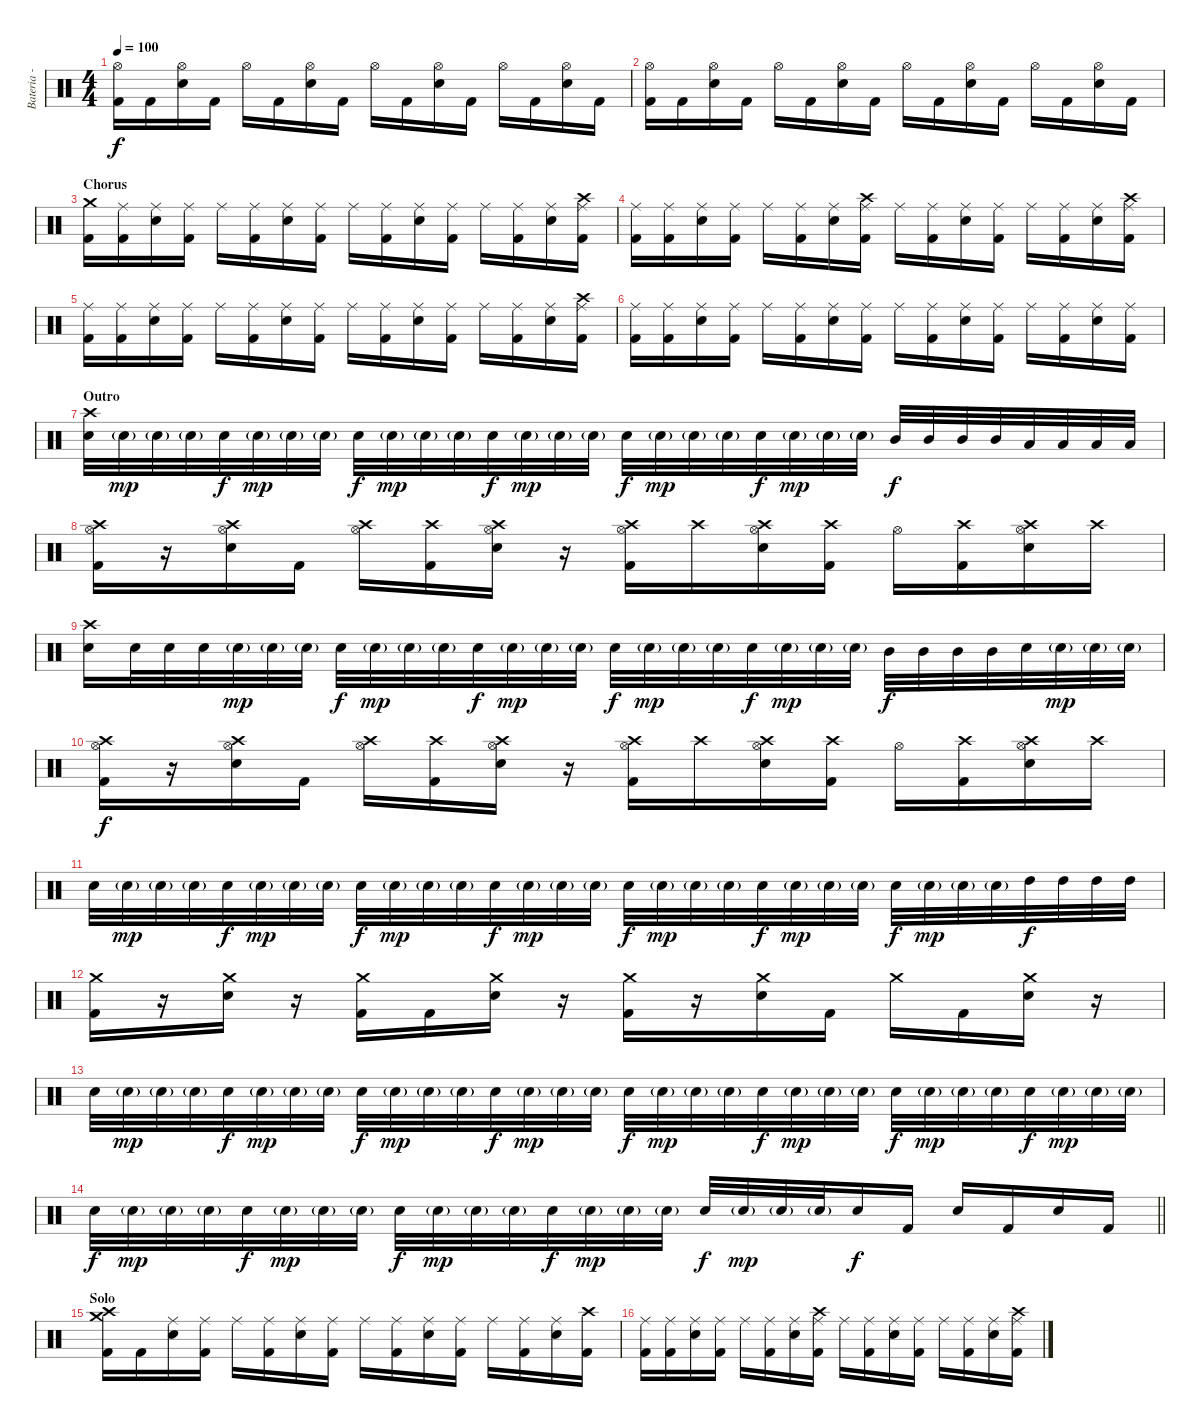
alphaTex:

\track ("Bateria - Frederik Larzon" "Bateria - ") {instrument percussion}
\staff {score}
\articulation defaults
\ts (4 4)
\tempo 100
\clef neutral
\ks c
("Kick (hit) 2" "Hi-Hat (open)").16{dy f} "Kick (hit) 2".16 ("Snare (hit) 2" "Hi-Hat (open)").16 "Kick (hit) 2".16 "Hi-Hat (open)".16 "Kick (hit) 2".16 ("Snare (hit) 2" "Hi-Hat (open)").16 "Kick (hit) 2".16 "Hi-Hat (open)".16 "Kick (hit) 2".16 ("Snare (hit) 2" "Hi-Hat (open)").16 "Kick (hit) 2".16 "Hi-Hat (open)".16 "Kick (hit) 2".16 ("Snare (hit) 2" "Hi-Hat (open)").16 "Kick (hit) 2".16 |
("Kick (hit) 2" "Hi-Hat (open)").16 "Kick (hit) 2".16 ("Snare (hit) 2" "Hi-Hat (open)").16 "Kick (hit) 2".16 "Hi-Hat (open)".16 "Kick (hit) 2".16 ("Snare (hit) 2" "Hi-Hat (open)").16 "Kick (hit) 2".16 "Hi-Hat (open)".16 "Kick (hit) 2".16 ("Snare (hit) 2" "Hi-Hat (open)").16 "Kick (hit) 2".16 "Hi-Hat (open)".16 "Kick (hit) 2".16 ("Snare (hit) 2" "Hi-Hat (open)").16 "Kick (hit) 2".16 |
\section ("" "Chorus")
("Kick (hit) 2" "Crash medium (hit)").16 ("Kick (hit) 2" "Ride (middle)").16 ("Snare (hit) 2" "Ride (middle)").16 ("Kick (hit) 2" "Ride (middle)").16 "Ride (middle)".16 ("Kick (hit) 2" "Ride (middle)").16 ("Snare (hit) 2" "Ride (middle)").16 ("Kick (hit) 2" "Ride (middle)").16 "Ride (middle)".16 ("Kick (hit) 2" "Ride (middle)").16 ("Snare (hit) 2" "Ride (middle)").16 ("Kick (hit) 2" "Ride (middle)").16 "Ride (middle)".16 ("Kick (hit) 2" "Ride (middle)").16 ("Snare (hit) 2" "Ride (middle)").16 ("Kick (hit) 2" "Crash high (hit)" "Ride (middle)").16 |
("Kick (hit) 2" "Ride (middle)").16 ("Kick (hit) 2" "Ride (middle)").16 ("Snare (hit) 2" "Ride (middle)").16 ("Kick (hit) 2" "Ride (middle)").16 "Ride (middle)".16 ("Kick (hit) 2" "Ride (middle)").16 ("Snare (hit) 2" "Ride (middle)").16 ("Kick (hit) 2" "Crash high (hit)" "Ride (middle)").16 "Ride (middle)".16 ("Kick (hit) 2" "Ride (middle)").16 ("Snare (hit) 2" "Ride (middle)").16 ("Kick (hit) 2" "Ride (middle)").16 "Ride (middle)".16 ("Kick (hit) 2" "Ride (middle)").16 ("Snare (hit) 2" "Ride (middle)").16 ("Kick (hit) 2" "Crash high (hit)" "Ride (middle)").16 |
("Kick (hit) 2" "Ride (middle)").16 ("Kick (hit) 2" "Ride (middle)").16 ("Snare (hit) 2" "Ride (middle)").16 ("Kick (hit) 2" "Ride (middle)").16 "Ride (middle)".16 ("Kick (hit) 2" "Ride (middle)").16 ("Snare (hit) 2" "Ride (middle)").16 ("Kick (hit) 2" "Ride (middle)").16 "Ride (middle)".16 ("Kick (hit) 2" "Ride (middle)").16 ("Snare (hit) 2" "Ride (middle)").16 ("Kick (hit) 2" "Ride (middle)").16 "Ride (middle)".16 ("Kick (hit) 2" "Ride (middle)").16 ("Snare (hit) 2" "Ride (middle)").16 ("Kick (hit) 2" "Crash high (hit)" "Ride (middle)").16 |
("Kick (hit) 2" "Ride (middle)").16 ("Kick (hit) 2" "Ride (middle)").16 ("Snare (hit) 2" "Ride (middle)").16 ("Kick (hit) 2" "Ride (middle)").16 "Ride (middle)".16 ("Kick (hit) 2" "Ride (middle)").16 ("Snare (hit) 2" "Ride (middle)").16 ("Kick (hit) 2" "Ride (middle)").16 "Ride (middle)".16 ("Kick (hit) 2" "Ride (middle)").16 ("Snare (hit) 2" "Ride (middle)").16 ("Kick (hit) 2" "Ride (middle)").16 "Ride (middle)".16 ("Kick (hit) 2" "Ride (middle)").16 ("Snare (hit) 2" "Ride (middle)").16 ("Kick (hit) 2" "Ride (middle)").16 |
\section ("" "Outro")
("Snare (hit) 2" "Crash high (hit)").32 "Snare (hit) 2"{g}.32{dy mp} "Snare (hit) 2"{g}.32 "Snare (hit) 2"{g}.32 "Snare (hit) 2".32{dy f} "Snare (hit) 2"{g}.32{dy mp} "Snare (hit) 2"{g}.32 "Snare (hit) 2"{g}.32 "Snare (hit) 2".32{dy f} "Snare (hit) 2"{g}.32{dy mp} "Snare (hit) 2"{g}.32 "Snare (hit) 2"{g}.32 "Snare (hit) 2".32{dy f} "Snare (hit) 2"{g}.32{dy mp} "Snare (hit) 2"{g}.32 "Snare (hit) 2"{g}.32 "Snare (hit) 2".32{dy f} "Snare (hit) 2"{g}.32{dy mp} "Snare (hit) 2"{g}.32 "Snare (hit) 2"{g}.32 "Snare (hit) 2".32{dy f} "Snare (hit) 2"{g}.32{dy mp} "Snare (hit) 2"{g}.32 "Snare (hit) 2"{g}.32 "Mid Tom (hit)".32{dy f} "Mid Tom (hit)".32 "Mid Tom (hit)".32 "Mid Tom (hit)".32 "Low Tom (hit)".32 "Low Tom (hit)".32 "Low Tom (hit)".32 "Low Tom (hit)".32 |
("Kick (hit) 2" "Hi-Hat (open)" "Crash high (hit)").16 r.16 ("Snare (hit) 2" "Hi-Hat (open)" "Crash high (hit)").16 "Kick (hit) 2".16 ("Hi-Hat (open)" "Crash high (hit)").16 ("Kick (hit) 2" "Crash high (hit)").16 ("Snare (hit) 2" "Hi-Hat (open)" "Crash high (hit)").16 r.16 ("Kick (hit) 2" "Hi-Hat (open)" "Crash high (hit)").16 "Crash high (hit)".16 ("Snare (hit) 2" "Hi-Hat (open)" "Crash high (hit)").16 ("Kick (hit) 2" "Crash high (hit)").16 "Hi-Hat (open)".16 ("Kick (hit) 2" "Crash high (hit)").16 ("Snare (hit) 2" "Hi-Hat (open)" "Crash high (hit)").16 "Crash high (hit)".16 |
("Snare (hit) 2" "Crash high (hit)").16 "Snare (hit) 2".32 "Snare (hit) 2".32 "Snare (hit) 2".32 "Snare (hit) 2"{g}.32{dy mp} "Snare (hit) 2"{g}.32 "Snare (hit) 2"{g}.32 "Snare (hit) 2".32{dy f} "Snare (hit) 2"{g}.32{dy mp} "Snare (hit) 2"{g}.32 "Snare (hit) 2"{g}.32 "Snare (hit) 2".32{dy f} "Snare (hit) 2"{g}.32{dy mp} "Snare (hit) 2"{g}.32 "Snare (hit) 2"{g}.32 "Snare (hit) 2".32{dy f} "Snare (hit) 2"{g}.32{dy mp} "Snare (hit) 2"{g}.32 "Snare (hit) 2"{g}.32 "Snare (hit) 2".32{dy f} "Snare (hit) 2"{g}.32{dy mp} "Snare (hit) 2"{g}.32 "Snare (hit) 2"{g}.32 "Mid Tom (hit)".32{dy f} "Mid Tom (hit)".32 "Mid Tom (hit)".32 "Mid Tom (hit)".32 "Snare (hit) 2".32 "Snare (hit) 2"{g}.32{dy mp} "Snare (hit) 2"{g}.32 "Snare (hit) 2"{g}.32 |
("Kick (hit) 2" "Hi-Hat (open)" "Crash high (hit)").16{dy f} r.16 ("Snare (hit) 2" "Hi-Hat (open)" "Crash high (hit)").16 "Kick (hit) 2".16 ("Hi-Hat (open)" "Crash high (hit)").16 ("Kick (hit) 2" "Crash high (hit)").16 ("Snare (hit) 2" "Hi-Hat (open)" "Crash high (hit)").16 r.16 ("Kick (hit) 2" "Hi-Hat (open)" "Crash high (hit)").16 "Crash high (hit)".16 ("Snare (hit) 2" "Hi-Hat (open)" "Crash high (hit)").16 ("Kick (hit) 2" "Crash high (hit)").16 "Hi-Hat (open)".16 ("Kick (hit) 2" "Crash high (hit)").16 ("Snare (hit) 2" "Hi-Hat (open)" "Crash high (hit)").16 "Crash high (hit)".16 |
"Snare (hit) 2".32 "Snare (hit) 2"{g}.32{dy mp} "Snare (hit) 2"{g}.32 "Snare (hit) 2"{g}.32 "Snare (hit) 2".32{dy f} "Snare (hit) 2"{g}.32{dy mp} "Snare (hit) 2"{g}.32 "Snare (hit) 2"{g}.32 "Snare (hit) 2".32{dy f} "Snare (hit) 2"{g}.32{dy mp} "Snare (hit) 2"{g}.32 "Snare (hit) 2"{g}.32 "Snare (hit) 2".32{dy f} "Snare (hit) 2"{g}.32{dy mp} "Snare (hit) 2"{g}.32 "Snare (hit) 2"{g}.32 "Snare (hit) 2".32{dy f} "Snare (hit) 2"{g}.32{dy mp} "Snare (hit) 2"{g}.32 "Snare (hit) 2"{g}.32 "Snare (hit) 2".32{dy f} "Snare (hit) 2"{g}.32{dy mp} "Snare (hit) 2"{g}.32 "Snare (hit) 2"{g}.32 "Snare (hit) 2".32{dy f} "Snare (hit) 2"{g}.32{dy mp} "Snare (hit) 2"{g}.32 "Snare (hit) 2"{g}.32 "High Tom (hit)".32{dy f} "High Tom (hit)".32 "High Tom (hit)".32 "High Tom (hit)".32 |
("Kick (hit) 2" "Crash medium (hit)").16 r.16 ("Snare (hit) 2" "Crash medium (hit)").16 r.16 ("Kick (hit) 2" "Crash medium (hit)").16 "Kick (hit) 2".16 ("Snare (hit) 2" "Crash medium (hit)").16 r.16 ("Kick (hit) 2" "Crash medium (hit)").16 r.16 ("Snare (hit) 2" "Crash medium (hit)").16 "Kick (hit) 2".16 "Crash medium (hit)".16 "Kick (hit) 2".16 ("Snare (hit) 2" "Crash medium (hit)").16 r.16 |
"Snare (hit) 2".32 "Snare (hit) 2"{g}.32{dy mp} "Snare (hit) 2"{g}.32 "Snare (hit) 2"{g}.32 "Snare (hit) 2".32{dy f} "Snare (hit) 2"{g}.32{dy mp} "Snare (hit) 2"{g}.32 "Snare (hit) 2"{g}.32 "Snare (hit) 2".32{dy f} "Snare (hit) 2"{g}.32{dy mp} "Snare (hit) 2"{g}.32 "Snare (hit) 2"{g}.32 "Snare (hit) 2".32{dy f} "Snare (hit) 2"{g}.32{dy mp} "Snare (hit) 2"{g}.32 "Snare (hit) 2"{g}.32 "Snare (hit) 2".32{dy f} "Snare (hit) 2"{g}.32{dy mp} "Snare (hit) 2"{g}.32 "Snare (hit) 2"{g}.32 "Snare (hit) 2".32{dy f} "Snare (hit) 2"{g}.32{dy mp} "Snare (hit) 2"{g}.32 "Snare (hit) 2"{g}.32 "Snare (hit) 2".32{dy f} "Snare (hit) 2"{g}.32{dy mp} "Snare (hit) 2"{g}.32 "Snare (hit) 2"{g}.32 "Snare (hit) 2".32{dy f} "Snare (hit) 2"{g}.32{dy mp} "Snare (hit) 2"{g}.32 "Snare (hit) 2"{g}.32 |
\barLineRight lightlight "Snare (hit) 2".32{dy f} "Snare (hit) 2"{g}.32{dy mp} "Snare (hit) 2"{g}.32 "Snare (hit) 2"{g}.32 "Snare (hit) 2".32{dy f} "Snare (hit) 2"{g}.32{dy mp} "Snare (hit) 2"{g}.32 "Snare (hit) 2"{g}.32 "Snare (hit) 2".32{dy f} "Snare (hit) 2"{g}.32{dy mp} "Snare (hit) 2"{g}.32 "Snare (hit) 2"{g}.32 "Snare (hit) 2".32{dy f} "Snare (hit) 2"{g}.32{dy mp} "Snare (hit) 2"{g}.32 "Snare (hit) 2"{g}.32 "Snare (hit) 2".32{dy f} "Snare (hit) 2"{g}.32{dy mp} "Snare (hit) 2"{g}.32 "Snare (hit) 2"{g}.32 "Snare (hit) 2".16{dy f} "Kick (hit) 2".16 "Snare (hit) 2".16 "Kick (hit) 2".16 "Snare (hit) 2".16 "Kick (hit) 2".16
|
\section ("" "Solo")
("Kick (hit) 2" "Crash medium (hit)" "Crash high (hit)").16 "Kick (hit) 2".16 ("Snare (hit) 2" "Ride (middle)").16 ("Kick (hit) 2" "Ride (middle)").16 "Ride (middle)".16 ("Kick (hit) 2" "Ride (middle)").16 ("Snare (hit) 2" "Ride (middle)").16 ("Kick (hit) 2" "Ride (middle)").16 "Ride (middle)".16 ("Kick (hit) 2" "Ride (middle)").16 ("Snare (hit) 2" "Ride (middle)").16 ("Kick (hit) 2" "Ride (middle)").16 "Ride (middle)".16 ("Kick (hit) 2" "Ride (middle)").16 ("Snare (hit) 2" "Ride (middle)").16 ("Kick (hit) 2" "Crash high (hit)").16 |
("Kick (hit) 2" "Ride (middle)").16 ("Kick (hit) 2" "Ride (middle)").16 ("Snare (hit) 2" "Ride (middle)").16 ("Kick (hit) 2" "Ride (middle)").16 "Ride (middle)".16 ("Kick (hit) 2" "Ride (middle)").16 ("Snare (hit) 2" "Ride (middle)").16 ("Kick (hit) 2" "Crash high (hit)" "Ride (middle)").16 "Ride (middle)".16 ("Kick (hit) 2" "Ride (middle)").16 ("Snare (hit) 2" "Ride (middle)").16 ("Kick (hit) 2" "Ride (middle)").16 "Ride (middle)".16 ("Kick (hit) 2" "Ride (middle)").16 ("Snare (hit) 2" "Ride (middle)").16 ("Kick (hit) 2" "Crash high (hit)" "Ride (middle)").16
